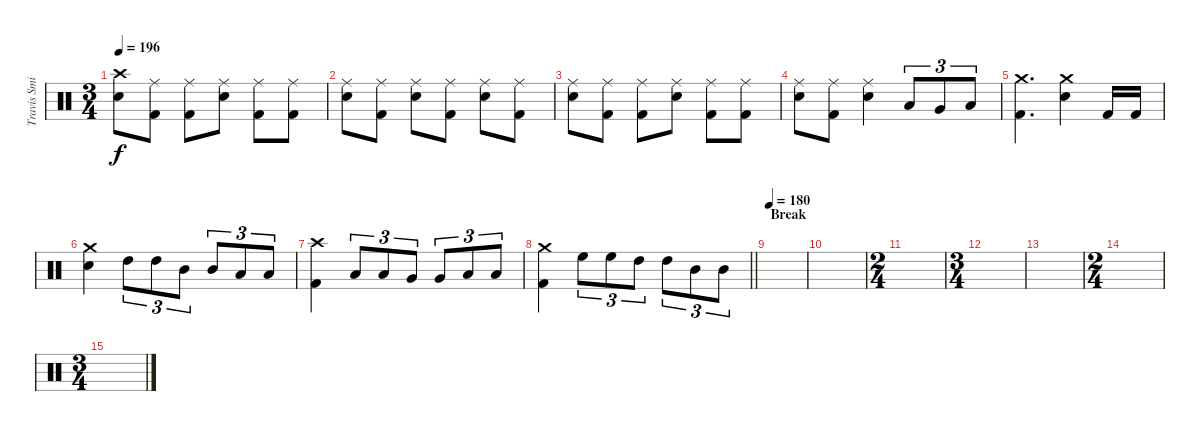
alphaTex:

\track ("Travis Smith" "Travis Smi") {instrument percussion}
\staff {score}
\articulation defaults
\ts (3 4)
\tempo 196
\clef neutral
\ks c
("Crash high (hit)" "Electric Snare (hit)").8{dy f} ("Ride (middle)" "Kick (hit) 2").8 ("Ride (middle)" "Kick (hit) 2").8 ("Ride (middle)" "Electric Snare (hit)").8 ("Ride (middle)" "Kick (hit) 2").8 ("Ride (middle)" "Kick (hit) 2").8 |
("Ride (middle)" "Electric Snare (hit)").8 ("Ride (middle)" "Kick (hit) 2").8 ("Ride (middle)" "Electric Snare (hit)").8 ("Ride (middle)" "Kick (hit) 2").8 ("Ride (middle)" "Electric Snare (hit)").8 ("Ride (middle)" "Kick (hit) 2").8 |
("Ride (middle)" "Electric Snare (hit)").8 ("Ride (middle)" "Kick (hit) 2").8 ("Ride (middle)" "Kick (hit) 2").8 ("Ride (middle)" "Electric Snare (hit)").8 ("Ride (middle)" "Kick (hit) 2").8 ("Ride (middle)" "Kick (hit) 2").8 |
("Ride (middle)" "Electric Snare (hit)").8 ("Ride (middle)" "Kick (hit) 2").8 ("Ride (middle)" "Electric Snare (hit)").4 "Low Tom (hit)".8{tu (3 2)} "Very Low Tom (hit)".8{tu (3 2)} "Low Floor Tom (hit)".8{tu (3 2)} |
("Crash medium (hit)" "Kick (hit) 2").4{d} ("Crash medium (hit)" "Electric Snare (hit)").4 "Kick (hit) 2".16 "Kick (hit) 2".16 |
("Crash medium (hit)" "Electric Snare (hit)").4 "High Tom (hit)".8{tu (3 2)} "High Tom (hit)".8{tu (3 2)} "Mid Tom (hit)".8{tu (3 2)} "Mid Tom (hit)".8{tu (3 2)} "Low Tom (hit)".8{tu (3 2)} "Low Tom (hit)".8{tu (3 2)} |
("Crash high (hit)" "Kick (hit) 2").4 "Low Tom (hit)".8{tu (3 2)} "Low Tom (hit)".8{tu (3 2)} "Very Low Tom (hit)".8{tu (3 2)} "Very Low Tom (hit)".8{tu (3 2)} "Low Floor Tom (hit)".8{tu (3 2)} "Low Floor Tom (hit)".8{tu (3 2)} |
\barLineRight lightlight
("Crash medium (hit)" "Kick (hit) 2").4 "High Floor Tom (hit)".8{tu (3 2)} "High Floor Tom (hit)".8{tu (3 2)} "High Tom (hit)".8{tu (3 2)} "High Tom (hit)".8{tu (3 2)} "Mid Tom (hit)".8{tu (3 2)} "Mid Tom (hit)".8{tu (3 2)} |
\section ("" "Break")
\tempo 180
|
|
\ts (2 4)
|
\ts (3 4)
|
|
\ts (2 4)
|
\ts (3 4)
